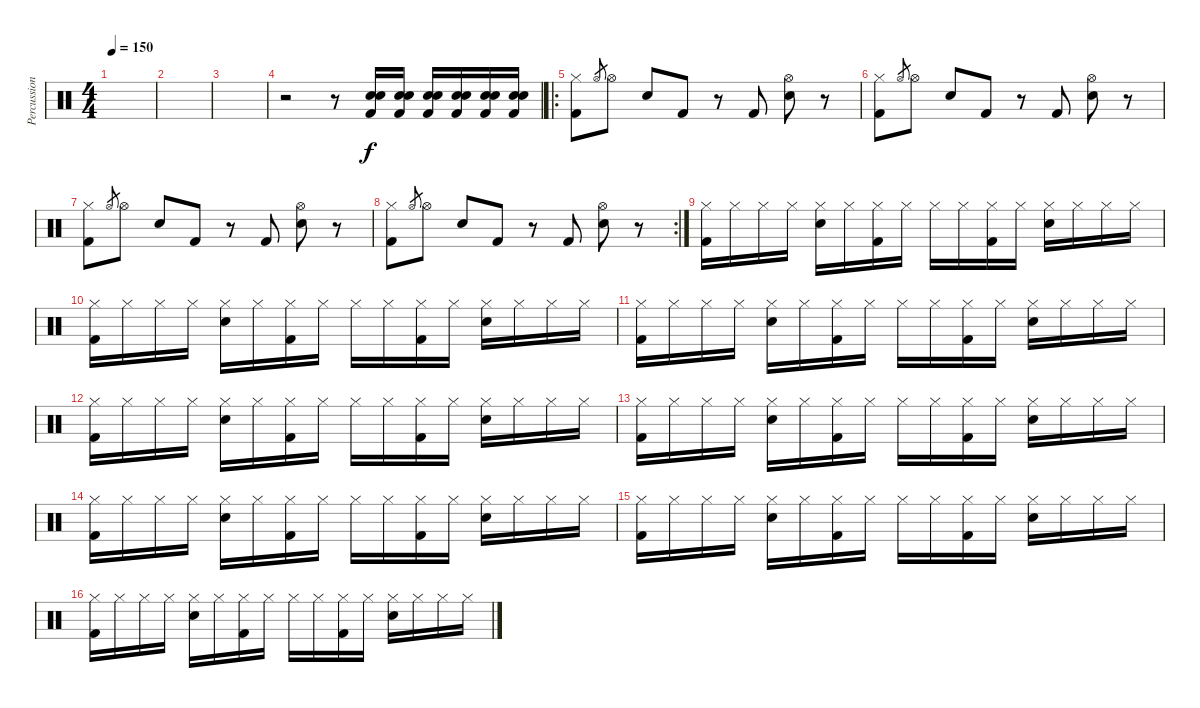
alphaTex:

\track ("Percussion" "Percussion") {instrument percussion}
\staff {score}
\articulation defaults
\ts (4 4)
\tempo 150
\clef neutral
\ks c
|
|
|
r.2 r.8 ("Electric Snare (hit)" "Snare (hit) 2" "Kick (hit) 2").16 ("Electric Snare (hit)" "Snare (hit) 2" "Kick (hit) 2").16 ("Electric Snare (hit)" "Snare (hit) 2" "Kick (hit) 2").16 ("Electric Snare (hit)" "Snare (hit) 2" "Kick (hit) 2").16 ("Electric Snare (hit)" "Snare (hit) 2" "Kick (hit) 2").16 ("Electric Snare (hit)" "Snare (hit) 2" "Kick (hit) 2").16 |
\ro
("Hi-Hat (closed)" "Kick (hit) 2").8 "Hi-Hat (open)".8{gr} "Hi-Hat (open)".8 "Hand Clap (hit)".8 "Kick (hit) 2".8 r.8 "Kick (hit) 2".8 ("Hi-Hat (open)" "Hand Clap (hit)").8 r.8 |
("Hi-Hat (closed)" "Kick (hit) 2").8 "Hi-Hat (open)".8{gr} "Hi-Hat (open)".8 "Hand Clap (hit)".8 "Kick (hit) 2".8 r.8 "Kick (hit) 2".8 ("Hi-Hat (open)" "Hand Clap (hit)").8 r.8 |
("Hi-Hat (closed)" "Kick (hit) 2").8 "Hi-Hat (open)".8{gr} "Hi-Hat (open)".8 "Hand Clap (hit)".8 "Kick (hit) 2".8 r.8 "Kick (hit) 2".8 ("Hi-Hat (open)" "Hand Clap (hit)").8 r.8 |
\rc 2
("Hi-Hat (closed)" "Kick (hit) 2").8 "Hi-Hat (open)".8{gr} "Hi-Hat (open)".8 "Hand Clap (hit)".8 "Kick (hit) 2".8 r.8 "Kick (hit) 2".8 ("Hi-Hat (open)" "Hand Clap (hit)").8 r.8 |
("Hi-Hat (closed)" "Kick (hit) 2").16 "Hi-Hat (closed)".16 "Hi-Hat (closed)".16 "Hi-Hat (closed)".16 ("Hi-Hat (closed)" "Hand Clap (hit)").16 "Hi-Hat (closed)".16 ("Hi-Hat (closed)" "Kick (hit) 2").16 "Hi-Hat (closed)".16 "Hi-Hat (closed)".16 "Hi-Hat (closed)".16 ("Hi-Hat (closed)" "Kick (hit) 2").16 "Hi-Hat (closed)".16 ("Hi-Hat (closed)" "Hand Clap (hit)").16 "Hi-Hat (closed)".16 "Hi-Hat (closed)".16 "Hi-Hat (closed)".16 |
("Hi-Hat (closed)" "Kick (hit) 2").16 "Hi-Hat (closed)".16 "Hi-Hat (closed)".16 "Hi-Hat (closed)".16 ("Hi-Hat (closed)" "Hand Clap (hit)").16 "Hi-Hat (closed)".16 ("Hi-Hat (closed)" "Kick (hit) 2").16 "Hi-Hat (closed)".16 "Hi-Hat (closed)".16 "Hi-Hat (closed)".16 ("Hi-Hat (closed)" "Kick (hit) 2").16 "Hi-Hat (closed)".16 ("Hi-Hat (closed)" "Hand Clap (hit)").16 "Hi-Hat (closed)".16 "Hi-Hat (closed)".16 "Hi-Hat (closed)".16 |
("Hi-Hat (closed)" "Kick (hit) 2").16 "Hi-Hat (closed)".16 "Hi-Hat (closed)".16 "Hi-Hat (closed)".16 ("Hi-Hat (closed)" "Hand Clap (hit)").16 "Hi-Hat (closed)".16 ("Hi-Hat (closed)" "Kick (hit) 2").16 "Hi-Hat (closed)".16 "Hi-Hat (closed)".16 "Hi-Hat (closed)".16 ("Hi-Hat (closed)" "Kick (hit) 2").16 "Hi-Hat (closed)".16 ("Hi-Hat (closed)" "Hand Clap (hit)").16 "Hi-Hat (closed)".16 "Hi-Hat (closed)".16 "Hi-Hat (closed)".16 |
("Hi-Hat (closed)" "Kick (hit) 2").16 "Hi-Hat (closed)".16 "Hi-Hat (closed)".16 "Hi-Hat (closed)".16 ("Hi-Hat (closed)" "Hand Clap (hit)").16 "Hi-Hat (closed)".16 ("Hi-Hat (closed)" "Kick (hit) 2").16 "Hi-Hat (closed)".16 "Hi-Hat (closed)".16 "Hi-Hat (closed)".16 ("Hi-Hat (closed)" "Kick (hit) 2").16 "Hi-Hat (closed)".16 ("Hi-Hat (closed)" "Hand Clap (hit)").16 "Hi-Hat (closed)".16 "Hi-Hat (closed)".16 "Hi-Hat (closed)".16 |
("Hi-Hat (closed)" "Kick (hit) 2").16 "Hi-Hat (closed)".16 "Hi-Hat (closed)".16 "Hi-Hat (closed)".16 ("Hi-Hat (closed)" "Hand Clap (hit)").16 "Hi-Hat (closed)".16 ("Hi-Hat (closed)" "Kick (hit) 2").16 "Hi-Hat (closed)".16 "Hi-Hat (closed)".16 "Hi-Hat (closed)".16 ("Hi-Hat (closed)" "Kick (hit) 2").16 "Hi-Hat (closed)".16 ("Hi-Hat (closed)" "Hand Clap (hit)").16 "Hi-Hat (closed)".16 "Hi-Hat (closed)".16 "Hi-Hat (closed)".16 |
("Hi-Hat (closed)" "Kick (hit) 2").16 "Hi-Hat (closed)".16 "Hi-Hat (closed)".16 "Hi-Hat (closed)".16 ("Hi-Hat (closed)" "Hand Clap (hit)").16 "Hi-Hat (closed)".16 ("Hi-Hat (closed)" "Kick (hit) 2").16 "Hi-Hat (closed)".16 "Hi-Hat (closed)".16 "Hi-Hat (closed)".16 ("Hi-Hat (closed)" "Kick (hit) 2").16 "Hi-Hat (closed)".16 ("Hi-Hat (closed)" "Hand Clap (hit)").16 "Hi-Hat (closed)".16 "Hi-Hat (closed)".16 "Hi-Hat (closed)".16 |
("Hi-Hat (closed)" "Kick (hit) 2").16 "Hi-Hat (closed)".16 "Hi-Hat (closed)".16 "Hi-Hat (closed)".16 ("Hi-Hat (closed)" "Hand Clap (hit)").16 "Hi-Hat (closed)".16 ("Hi-Hat (closed)" "Kick (hit) 2").16 "Hi-Hat (closed)".16 "Hi-Hat (closed)".16 "Hi-Hat (closed)".16 ("Hi-Hat (closed)" "Kick (hit) 2").16 "Hi-Hat (closed)".16 ("Hi-Hat (closed)" "Hand Clap (hit)").16 "Hi-Hat (closed)".16 "Hi-Hat (closed)".16 "Hi-Hat (closed)".16 |
("Hi-Hat (closed)" "Kick (hit) 2").16 "Hi-Hat (closed)".16 "Hi-Hat (closed)".16 "Hi-Hat (closed)".16 ("Hi-Hat (closed)" "Hand Clap (hit)").16 "Hi-Hat (closed)".16 ("Hi-Hat (closed)" "Kick (hit) 2").16 "Hi-Hat (closed)".16 "Hi-Hat (closed)".16 "Hi-Hat (closed)".16 ("Hi-Hat (closed)" "Kick (hit) 2").16 "Hi-Hat (closed)".16 ("Hi-Hat (closed)" "Hand Clap (hit)").16 "Hi-Hat (closed)".16 "Hi-Hat (closed)".16 "Hi-Hat (closed)".16
